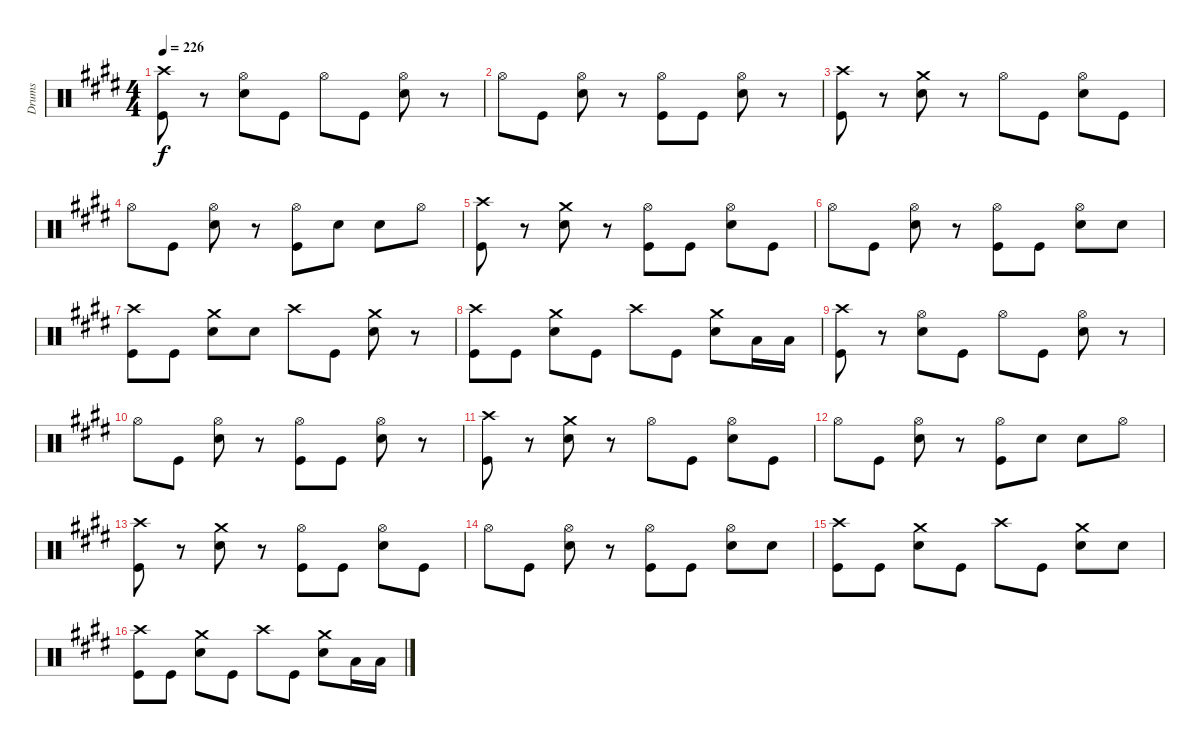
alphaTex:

\track ("Drums" "Drums") {instrument percussion}
\staff {score}
\articulation defaults
\ts (4 4)
\tempo 226
\clef neutral
\ks e
("Crash high (hit)" "Kick (hit)").8{dy f} r.8 ("Hi-Hat (open)" "Snare (hit) 2").8 "Kick (hit)".8 "Hi-Hat (open)".8 "Kick (hit)".8 ("Hi-Hat (open)" "Snare (hit) 2").8 r.8 |
"Hi-Hat (open)".8 "Kick (hit)".8 ("Hi-Hat (open)" "Snare (hit) 2").8 r.8 ("Hi-Hat (open)" "Kick (hit)").8 "Kick (hit)".8 ("Hi-Hat (open)" "Snare (hit) 2").8 r.8 |
("Crash high (hit)" "Kick (hit)").8 r.8 ("Crash medium (hit)" "Snare (hit) 2").8 r.8 "Hi-Hat (open)".8 "Kick (hit)".8 ("Hi-Hat (open)" "Snare (hit) 2").8 "Kick (hit)".8 |
"Hi-Hat (open)".8 "Kick (hit)".8 ("Hi-Hat (open)" "Snare (hit) 2").8 r.8 ("Hi-Hat (open)" "Kick (hit)").8 "Snare (hit) 2".8 "Snare (hit) 2".8 "Hi-Hat (open)".8 |
("Crash high (hit)" "Kick (hit)").8 r.8 ("Crash medium (hit)" "Snare (hit) 2").8 r.8 ("Hi-Hat (open)" "Kick (hit)").8 "Kick (hit)".8 ("Hi-Hat (open)" "Snare (hit) 2").8 "Kick (hit)".8 |
"Hi-Hat (open)".8 "Kick (hit)".8 ("Hi-Hat (open)" "Snare (hit) 2").8 r.8 ("Hi-Hat (open)" "Kick (hit)").8 "Kick (hit)".8 ("Hi-Hat (open)" "Snare (hit) 2").8 "Snare (hit) 2".8 |
("Crash high (hit)" "Kick (hit)").8 "Kick (hit)".8 ("Crash medium (hit)" "Snare (hit) 2").8 "Snare (hit) 2".8 "Crash high (hit)".8 "Kick (hit)".8 ("Crash medium (hit)" "Snare (hit) 2").8 r.8 |
("Crash high (hit)" "Kick (hit)").8 "Kick (hit)".8 ("Crash medium (hit)" "Snare (hit) 2").8 "Kick (hit)".8 "Crash high (hit)".8 "Kick (hit)".8 ("Crash medium (hit)" "Snare (hit) 2").8 "Low Tom (hit)".16 "Low Tom (hit)".16 |
("Crash high (hit)" "Kick (hit)").8 r.8 ("Hi-Hat (open)" "Snare (hit) 2").8 "Kick (hit)".8 "Hi-Hat (open)".8 "Kick (hit)".8 ("Hi-Hat (open)" "Snare (hit) 2").8 r.8 |
"Hi-Hat (open)".8 "Kick (hit)".8 ("Hi-Hat (open)" "Snare (hit) 2").8 r.8 ("Hi-Hat (open)" "Kick (hit)").8 "Kick (hit)".8 ("Hi-Hat (open)" "Snare (hit) 2").8 r.8 |
("Crash high (hit)" "Kick (hit)").8 r.8 ("Crash medium (hit)" "Snare (hit) 2").8 r.8 "Hi-Hat (open)".8 "Kick (hit)".8 ("Hi-Hat (open)" "Snare (hit) 2").8 "Kick (hit)".8 |
"Hi-Hat (open)".8 "Kick (hit)".8 ("Hi-Hat (open)" "Snare (hit) 2").8 r.8 ("Hi-Hat (open)" "Kick (hit)").8 "Snare (hit) 2".8 "Snare (hit) 2".8 "Hi-Hat (open)".8 |
("Crash high (hit)" "Kick (hit)").8 r.8 ("Crash medium (hit)" "Snare (hit) 2").8 r.8 ("Hi-Hat (open)" "Kick (hit)").8 "Kick (hit)".8 ("Hi-Hat (open)" "Snare (hit) 2").8 "Kick (hit)".8 |
"Hi-Hat (open)".8 "Kick (hit)".8 ("Hi-Hat (open)" "Snare (hit) 2").8 r.8 ("Hi-Hat (open)" "Kick (hit)").8 "Kick (hit)".8 ("Hi-Hat (open)" "Snare (hit) 2").8 "Snare (hit) 2".8 |
("Crash high (hit)" "Kick (hit)").8 "Kick (hit)".8 ("Crash medium (hit)" "Snare (hit) 2").8 "Kick (hit)".8 "Crash high (hit)".8 "Kick (hit)".8 ("Crash medium (hit)" "Snare (hit) 2").8 "Snare (hit) 2".8 |
("Crash high (hit)" "Kick (hit)").8 "Kick (hit)".8 ("Crash medium (hit)" "Snare (hit) 2").8 "Kick (hit)".8 "Crash high (hit)".8 "Kick (hit)".8 ("Crash medium (hit)" "Snare (hit) 2").8 "Low Tom (hit)".16 "Low Tom (hit)".16
